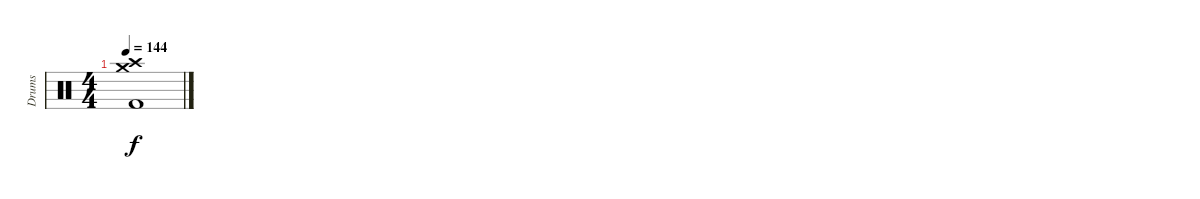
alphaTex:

\track ("Drums" "Drums") {instrument percussion}
\staff {score}
\articulation defaults
\ts (4 4)
\tempo 144
\clef neutral
\ks c
("Crash high (hit)" "Crash medium (hit)" "Kick (hit) 2").1{dy f}
